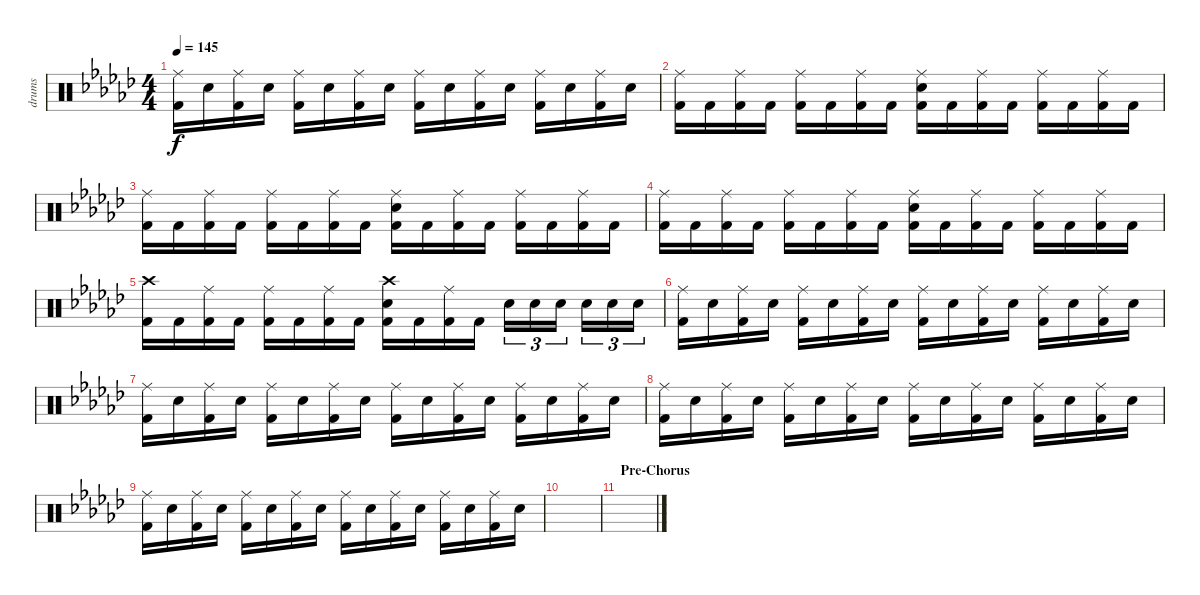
\track ("drums" "drums") {instrument percussion}
\staff {score}
\articulation defaults
\ts (4 4)
\tempo 145
\clef neutral
\ks gb
("Ride (middle)" "Kick (hit) 2").16{dy f} "Electric Snare (hit)".16 ("Ride (middle)" "Kick (hit) 2").16 "Electric Snare (hit)".16 ("Ride (middle)" "Kick (hit) 2").16 "Electric Snare (hit)".16 ("Ride (middle)" "Kick (hit) 2").16 "Electric Snare (hit)".16 ("Ride (middle)" "Kick (hit) 2").16 "Electric Snare (hit)".16 ("Ride (middle)" "Kick (hit) 2").16 "Electric Snare (hit)".16 ("Ride (middle)" "Kick (hit) 2").16 "Electric Snare (hit)".16 ("Ride (middle)" "Kick (hit) 2").16 "Electric Snare (hit)".16 |
("Ride (middle)" "Kick (hit) 2").16 "Kick (hit) 2".16 ("Ride (middle)" "Kick (hit) 2").16 "Kick (hit) 2".16 ("Ride (middle)" "Kick (hit) 2").16 "Kick (hit) 2".16 ("Ride (middle)" "Kick (hit) 2").16 "Kick (hit) 2".16 ("Ride (middle)" "Electric Snare (hit)" "Kick (hit) 2").16 "Kick (hit) 2".16 ("Ride (middle)" "Kick (hit) 2").16 "Kick (hit) 2".16 ("Ride (middle)" "Kick (hit) 2").16 "Kick (hit) 2".16 ("Ride (middle)" "Kick (hit) 2").16 "Kick (hit) 2".16 |
("Ride (middle)" "Kick (hit) 2").16 "Kick (hit) 2".16 ("Ride (middle)" "Kick (hit) 2").16 "Kick (hit) 2".16 ("Ride (middle)" "Kick (hit) 2").16 "Kick (hit) 2".16 ("Ride (middle)" "Kick (hit) 2").16 "Kick (hit) 2".16 ("Ride (middle)" "Electric Snare (hit)" "Kick (hit) 2").16 "Kick (hit) 2".16 ("Ride (middle)" "Kick (hit) 2").16 "Kick (hit) 2".16 ("Ride (middle)" "Kick (hit) 2").16 "Kick (hit) 2".16 ("Ride (middle)" "Kick (hit) 2").16 "Kick (hit) 2".16 |
("Ride (middle)" "Kick (hit) 2").16 "Kick (hit) 2".16 ("Ride (middle)" "Kick (hit) 2").16 "Kick (hit) 2".16 ("Ride (middle)" "Kick (hit) 2").16 "Kick (hit) 2".16 ("Ride (middle)" "Kick (hit) 2").16 "Kick (hit) 2".16 ("Ride (middle)" "Electric Snare (hit)" "Kick (hit) 2").16 "Kick (hit) 2".16 ("Ride (middle)" "Kick (hit) 2").16 "Kick (hit) 2".16 ("Ride (middle)" "Kick (hit) 2").16 "Kick (hit) 2".16 ("Ride (middle)" "Kick (hit) 2").16 "Kick (hit) 2".16 |
("Crash high (hit)" "Kick (hit) 2").16 "Kick (hit) 2".16 ("Ride (middle)" "Kick (hit) 2").16 "Kick (hit) 2".16 ("Ride (middle)" "Kick (hit) 2").16 "Kick (hit) 2".16 ("Ride (middle)" "Kick (hit) 2").16 "Kick (hit) 2".16 ("Crash high (hit)" "Electric Snare (hit)" "Kick (hit) 2").16 "Kick (hit) 2".16 ("Ride (middle)" "Kick (hit) 2").16 "Kick (hit) 2".16 "Electric Snare (hit)".16{tu (3 2)} "Electric Snare (hit)".16{tu (3 2)} "Electric Snare (hit)".16{tu (3 2)} "Electric Snare (hit)".16{tu (3 2)} "Electric Snare (hit)".16{tu (3 2)} "Electric Snare (hit)".16{tu (3 2)} |
("Ride (middle)" "Kick (hit) 2").16 "Electric Snare (hit)".16 ("Ride (middle)" "Kick (hit) 2").16 "Electric Snare (hit)".16 ("Ride (middle)" "Kick (hit) 2").16 "Electric Snare (hit)".16 ("Ride (middle)" "Kick (hit) 2").16 "Electric Snare (hit)".16 ("Ride (middle)" "Kick (hit) 2").16 "Electric Snare (hit)".16 ("Ride (middle)" "Kick (hit) 2").16 "Electric Snare (hit)".16 ("Ride (middle)" "Kick (hit) 2").16 "Electric Snare (hit)".16 ("Ride (middle)" "Kick (hit) 2").16 "Electric Snare (hit)".16 |
("Ride (middle)" "Kick (hit) 2").16 "Electric Snare (hit)".16 ("Ride (middle)" "Kick (hit) 2").16 "Electric Snare (hit)".16 ("Ride (middle)" "Kick (hit) 2").16 "Electric Snare (hit)".16 ("Ride (middle)" "Kick (hit) 2").16 "Electric Snare (hit)".16 ("Ride (middle)" "Kick (hit) 2").16 "Electric Snare (hit)".16 ("Ride (middle)" "Kick (hit) 2").16 "Electric Snare (hit)".16 ("Ride (middle)" "Kick (hit) 2").16 "Electric Snare (hit)".16 ("Ride (middle)" "Kick (hit) 2").16 "Electric Snare (hit)".16 |
("Ride (middle)" "Kick (hit) 2").16 "Electric Snare (hit)".16 ("Ride (middle)" "Kick (hit) 2").16 "Electric Snare (hit)".16 ("Ride (middle)" "Kick (hit) 2").16 "Electric Snare (hit)".16 ("Ride (middle)" "Kick (hit) 2").16 "Electric Snare (hit)".16 ("Ride (middle)" "Kick (hit) 2").16 "Electric Snare (hit)".16 ("Ride (middle)" "Kick (hit) 2").16 "Electric Snare (hit)".16 ("Ride (middle)" "Kick (hit) 2").16 "Electric Snare (hit)".16 ("Ride (middle)" "Kick (hit) 2").16 "Electric Snare (hit)".16 |
("Ride (middle)" "Kick (hit) 2").16 "Electric Snare (hit)".16 ("Ride (middle)" "Kick (hit) 2").16 "Electric Snare (hit)".16 ("Ride (middle)" "Kick (hit) 2").16 "Electric Snare (hit)".16 ("Ride (middle)" "Kick (hit) 2").16 "Electric Snare (hit)".16 ("Ride (middle)" "Kick (hit) 2").16 "Electric Snare (hit)".16 ("Ride (middle)" "Kick (hit) 2").16 "Electric Snare (hit)".16 ("Ride (middle)" "Kick (hit) 2").16 "Electric Snare (hit)".16 ("Ride (middle)" "Kick (hit) 2").16 "Electric Snare (hit)".16 |
|
\section ("" "Pre-Chorus")
